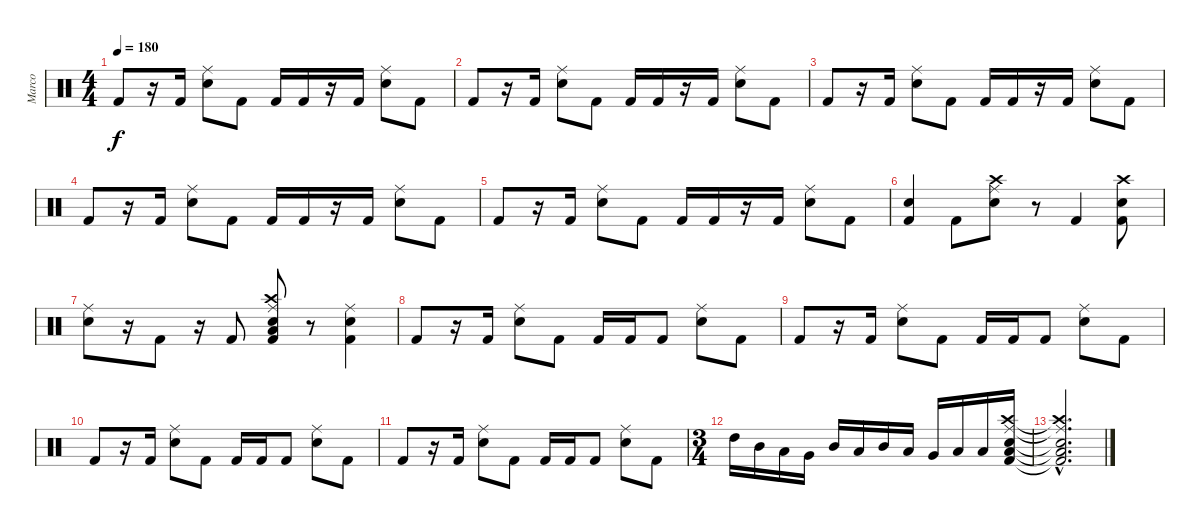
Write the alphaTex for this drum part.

\track ("Marco" "Marco") {instrument percussion}
\staff {score}
\articulation defaults
\ts (4 4)
\tempo 180
\clef neutral
\ks c "Kick (hit) 2".8{dy f}
r.16 "Kick (hit) 2".16 ("Electric Snare (hit)" "Ride (middle)").8 "Kick (hit) 2".8 "Kick (hit) 2".16 "Kick (hit) 2".16 r.16 "Kick (hit) 2".16 ("Electric Snare (hit)" "Ride (middle)").8 "Kick (hit) 2".8 |
"Kick (hit) 2".8 r.16 "Kick (hit) 2".16 ("Electric Snare (hit)" "Ride (middle)").8 "Kick (hit) 2".8 "Kick (hit) 2".16 "Kick (hit) 2".16 r.16 "Kick (hit) 2".16 ("Electric Snare (hit)" "Ride (middle)").8 "Kick (hit) 2".8 |
"Kick (hit) 2".8 r.16 "Kick (hit) 2".16 ("Electric Snare (hit)" "Ride (middle)").8 "Kick (hit) 2".8 "Kick (hit) 2".16 "Kick (hit) 2".16 r.16 "Kick (hit) 2".16 ("Electric Snare (hit)" "Ride (middle)").8 "Kick (hit) 2".8 |
"Kick (hit) 2".8 r.16 "Kick (hit) 2".16 ("Electric Snare (hit)" "Ride (middle)").8 "Kick (hit) 2".8 "Kick (hit) 2".16 "Kick (hit) 2".16 r.16 "Kick (hit) 2".16 ("Electric Snare (hit)" "Ride (middle)").8 "Kick (hit) 2".8 |
"Kick (hit) 2".8 r.16 "Kick (hit) 2".16 ("Electric Snare (hit)" "Ride (middle)").8 "Kick (hit) 2".8 "Kick (hit) 2".16 "Kick (hit) 2".16 r.16 "Kick (hit) 2".16 ("Electric Snare (hit)" "Ride (middle)").8 "Kick (hit) 2".8 |
("Kick (hit) 2" "Electric Snare (hit)").4 "Kick (hit) 2".8 ("Electric Snare (hit)" "Ride (middle)" "Crash high (hit)").8 r.8 "Kick (hit) 2".4 ("Kick (hit) 2" "Electric Snare (hit)" "Crash high (hit)").8 |
("Electric Snare (hit)" "Ride (middle)").8 r.16 "Kick (hit) 2".8 r.16 "Kick (hit) 2".8 ("Kick (hit) 2" "Ride (middle)" "Electric Snare (hit)" "Low Tom (hit)" "Crash high (hit)").8 r.8 ("Kick (hit) 2" "Electric Snare (hit)" "Ride (middle)").4 |
"Kick (hit) 2".8 r.16 "Kick (hit) 2".16 ("Electric Snare (hit)" "Ride (middle)").8 "Kick (hit) 2".8 "Kick (hit) 2".16 "Kick (hit) 2".16 "Kick (hit) 2".8 ("Electric Snare (hit)" "Ride (middle)").8 "Kick (hit) 2".8 |
"Kick (hit) 2".8 r.16 "Kick (hit) 2".16 ("Electric Snare (hit)" "Ride (middle)").8 "Kick (hit) 2".8 "Kick (hit) 2".16 "Kick (hit) 2".16 "Kick (hit) 2".8 ("Electric Snare (hit)" "Ride (middle)").8 "Kick (hit) 2".8 |
"Kick (hit) 2".8 r.16 "Kick (hit) 2".16 ("Electric Snare (hit)" "Ride (middle)").8 "Kick (hit) 2".8 "Kick (hit) 2".16 "Kick (hit) 2".16 "Kick (hit) 2".8 ("Electric Snare (hit)" "Ride (middle)").8 "Kick (hit) 2".8 |
"Kick (hit) 2".8 r.16 "Kick (hit) 2".16 ("Electric Snare (hit)" "Ride (middle)").8 "Kick (hit) 2".8 "Kick (hit) 2".16 "Kick (hit) 2".16 "Kick (hit) 2".8 ("Electric Snare (hit)" "Ride (middle)").8 "Kick (hit) 2".8 |
\ts (3 4)
"High Tom (hit)".16 "Mid Tom (hit)".16 "Low Tom (hit)".16 "Very Low Tom (hit)".16 "Mid Tom (hit)".16 "Low Tom (hit)".16 "Mid Tom (hit)".16 "Low Tom (hit)".16 "Very Low Tom (hit)".16 "Low Floor Tom (hit)".16 "Low Tom (hit)".16 ("Kick (hit) 2" "Crash high (hit)" "Electric Snare (hit)" "Ride (middle)" "Low Tom (hit)").16 |
("Kick (hit) 2"{hac t} "Crash high (hit)"{hac t} "Electric Snare (hit)"{hac t} "Ride (middle)"{hac t} "Low Tom (hit)"{hac t}).2{d}
